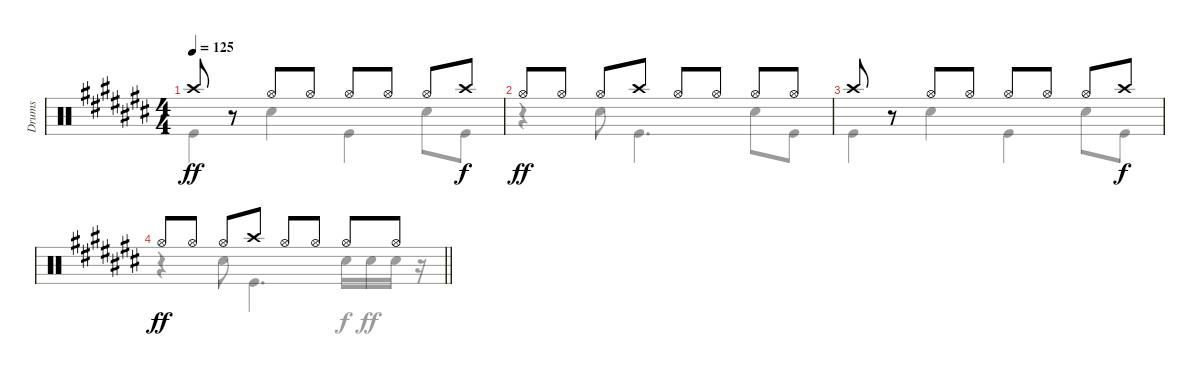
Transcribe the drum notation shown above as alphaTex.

\track ("Drums" "Drums") {instrument percussion}
\staff {score}
\articulation defaults
\voice
\ts (4 4)
\tempo 125
\clef neutral
\ks c# "Crash high (hit)".8{dy ff}
r.8 "Hi-Hat (open)".8 "Hi-Hat (open)".8 "Hi-Hat (open)".8 "Hi-Hat (open)".8 "Hi-Hat (open)".8 "Crash high (hit)".8{dy f} |
"Hi-Hat (open)".8{dy ff} "Hi-Hat (open)".8 "Hi-Hat (open)".8 "Crash high (hit)".8 "Hi-Hat (open)".8 "Hi-Hat (open)".8 "Hi-Hat (open)".8 "Hi-Hat (open)".8 |
"Crash high (hit)".8 r.8 "Hi-Hat (open)".8 "Hi-Hat (open)".8 "Hi-Hat (open)".8 "Hi-Hat (open)".8 "Hi-Hat (open)".8 "Crash high (hit)".8{dy f} |
\barLineRight lightlight "Hi-Hat (open)".8{dy ff} "Hi-Hat (open)".8 "Hi-Hat (open)".8 "Crash high (hit)".8 "Hi-Hat (open)".8 "Hi-Hat (open)".8 "Hi-Hat (open)".8 "Hi-Hat (open)".8
\voice
\clef neutral
\ottava regular
\simile none
\ks c# "Kick (hit)".4{dy ff} "Snare (hit) 2".4 "Kick (hit)".4 "Snare (hit) 2".8 "Kick (hit)".8
|
r.4 "Snare (hit) 2".8 "Kick (hit)".4{d} "Snare (hit) 2".8 "Kick (hit)".8 |
"Kick (hit)".4 "Snare (hit) 2".4 "Kick (hit)".4 "Snare (hit) 2".8 "Kick (hit)".8 |
\barLineRight lightlight
r.4 "Snare (hit) 2".8 "Kick (hit)".4{d} "Snare (hit) 2".16{dy f} "Snare (hit) 2".16{dy ff} "Snare (hit) 2".16 r.16
